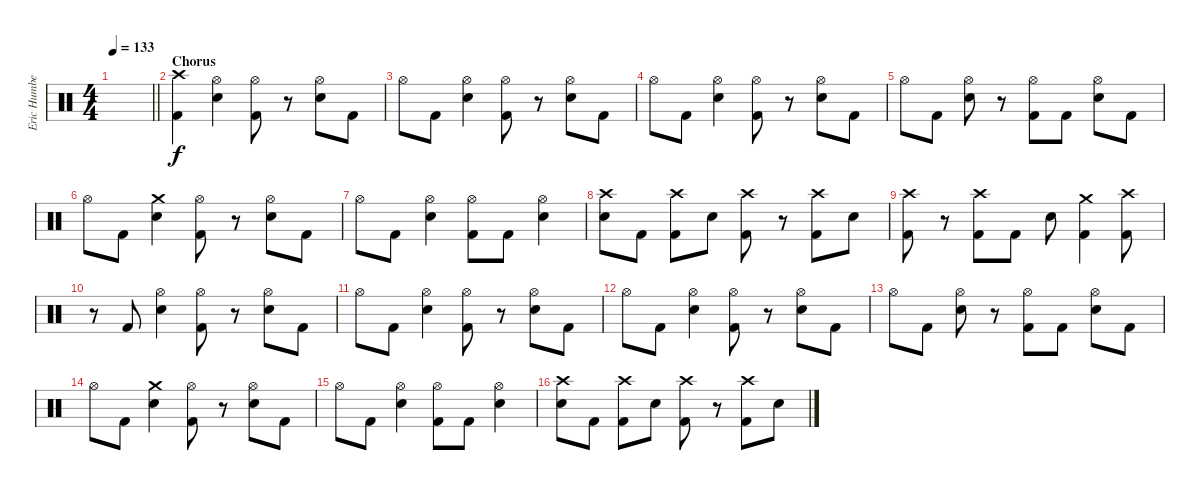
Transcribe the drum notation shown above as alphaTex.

\track ("Eric Humbert (Drums)" "Eric Humbe") {instrument percussion}
\staff {score}
\articulation defaults
\ts (4 4)
\tempo 133
\clef neutral
\barLineRight lightlight
\ks c
|
\section ("" "Chorus")
("Crash high (hit)" "Kick (hit) 2").4 ("Hi-Hat (open)" "Electric Snare (hit)").4 ("Hi-Hat (open)" "Kick (hit) 2").8 r.8 ("Hi-Hat (open)" "Electric Snare (hit)").8 "Kick (hit) 2".8 |
"Hi-Hat (open)".8 "Kick (hit) 2".8 ("Hi-Hat (open)" "Electric Snare (hit)").4 ("Hi-Hat (open)" "Kick (hit) 2").8 r.8 ("Hi-Hat (open)" "Electric Snare (hit)").8 "Kick (hit) 2".8 |
"Hi-Hat (open)".8 "Kick (hit) 2".8 ("Hi-Hat (open)" "Electric Snare (hit)").4 ("Hi-Hat (open)" "Kick (hit) 2").8 r.8 ("Hi-Hat (open)" "Electric Snare (hit)").8 "Kick (hit) 2".8 |
"Hi-Hat (open)".8 "Kick (hit) 2".8 ("Hi-Hat (open)" "Electric Snare (hit)").8 r.8 ("Hi-Hat (open)" "Kick (hit) 2").8 "Kick (hit) 2".8 ("Hi-Hat (open)" "Electric Snare (hit)").8 "Kick (hit) 2".8 |
"Hi-Hat (open)".8 "Kick (hit) 2".8 ("Crash medium (hit)" "Electric Snare (hit)").4 ("Hi-Hat (open)" "Kick (hit) 2").8 r.8 ("Hi-Hat (open)" "Electric Snare (hit)").8 "Kick (hit) 2".8 |
"Hi-Hat (open)".8 "Kick (hit) 2".8 ("Hi-Hat (open)" "Electric Snare (hit)").4 ("Hi-Hat (open)" "Kick (hit) 2").8 "Kick (hit) 2".8 ("Hi-Hat (open)" "Electric Snare (hit)").4 |
("Crash high (hit)" "Electric Snare (hit)").8 "Kick (hit) 2".8 ("Crash high (hit)" "Kick (hit) 2").8 "Electric Snare (hit)".8 ("Crash high (hit)" "Kick (hit) 2").8 r.8 ("Crash high (hit)" "Kick (hit) 2").8 "Electric Snare (hit)".8 |
("Crash high (hit)" "Kick (hit) 2").8 r.8 ("Crash high (hit)" "Kick (hit) 2").8 "Kick (hit) 2".8 "Electric Snare (hit)".8 ("Crash medium (hit)" "Kick (hit) 2").4 ("Crash high (hit)" "Kick (hit) 2").8 |
r.8 "Kick (hit) 2".8 ("Hi-Hat (open)" "Electric Snare (hit)").4 ("Hi-Hat (open)" "Kick (hit) 2").8 r.8 ("Hi-Hat (open)" "Electric Snare (hit)").8 "Kick (hit) 2".8 |
"Hi-Hat (open)".8 "Kick (hit) 2".8 ("Hi-Hat (open)" "Electric Snare (hit)").4 ("Hi-Hat (open)" "Kick (hit) 2").8 r.8 ("Hi-Hat (open)" "Electric Snare (hit)").8 "Kick (hit) 2".8 |
"Hi-Hat (open)".8 "Kick (hit) 2".8 ("Hi-Hat (open)" "Electric Snare (hit)").4 ("Hi-Hat (open)" "Kick (hit) 2").8 r.8 ("Hi-Hat (open)" "Electric Snare (hit)").8 "Kick (hit) 2".8 |
"Hi-Hat (open)".8 "Kick (hit) 2".8 ("Hi-Hat (open)" "Electric Snare (hit)").8 r.8 ("Hi-Hat (open)" "Kick (hit) 2").8 "Kick (hit) 2".8 ("Hi-Hat (open)" "Electric Snare (hit)").8 "Kick (hit) 2".8 |
"Hi-Hat (open)".8 "Kick (hit) 2".8 ("Crash medium (hit)" "Electric Snare (hit)").4 ("Hi-Hat (open)" "Kick (hit) 2").8 r.8 ("Hi-Hat (open)" "Electric Snare (hit)").8 "Kick (hit) 2".8 |
"Hi-Hat (open)".8 "Kick (hit) 2".8 ("Hi-Hat (open)" "Electric Snare (hit)").4 ("Hi-Hat (open)" "Kick (hit) 2").8 "Kick (hit) 2".8 ("Hi-Hat (open)" "Electric Snare (hit)").4 |
("Crash high (hit)" "Electric Snare (hit)").8 "Kick (hit) 2".8 ("Crash high (hit)" "Kick (hit) 2").8 "Electric Snare (hit)".8 ("Crash high (hit)" "Kick (hit) 2").8 r.8 ("Crash high (hit)" "Kick (hit) 2").8 "Electric Snare (hit)".8
